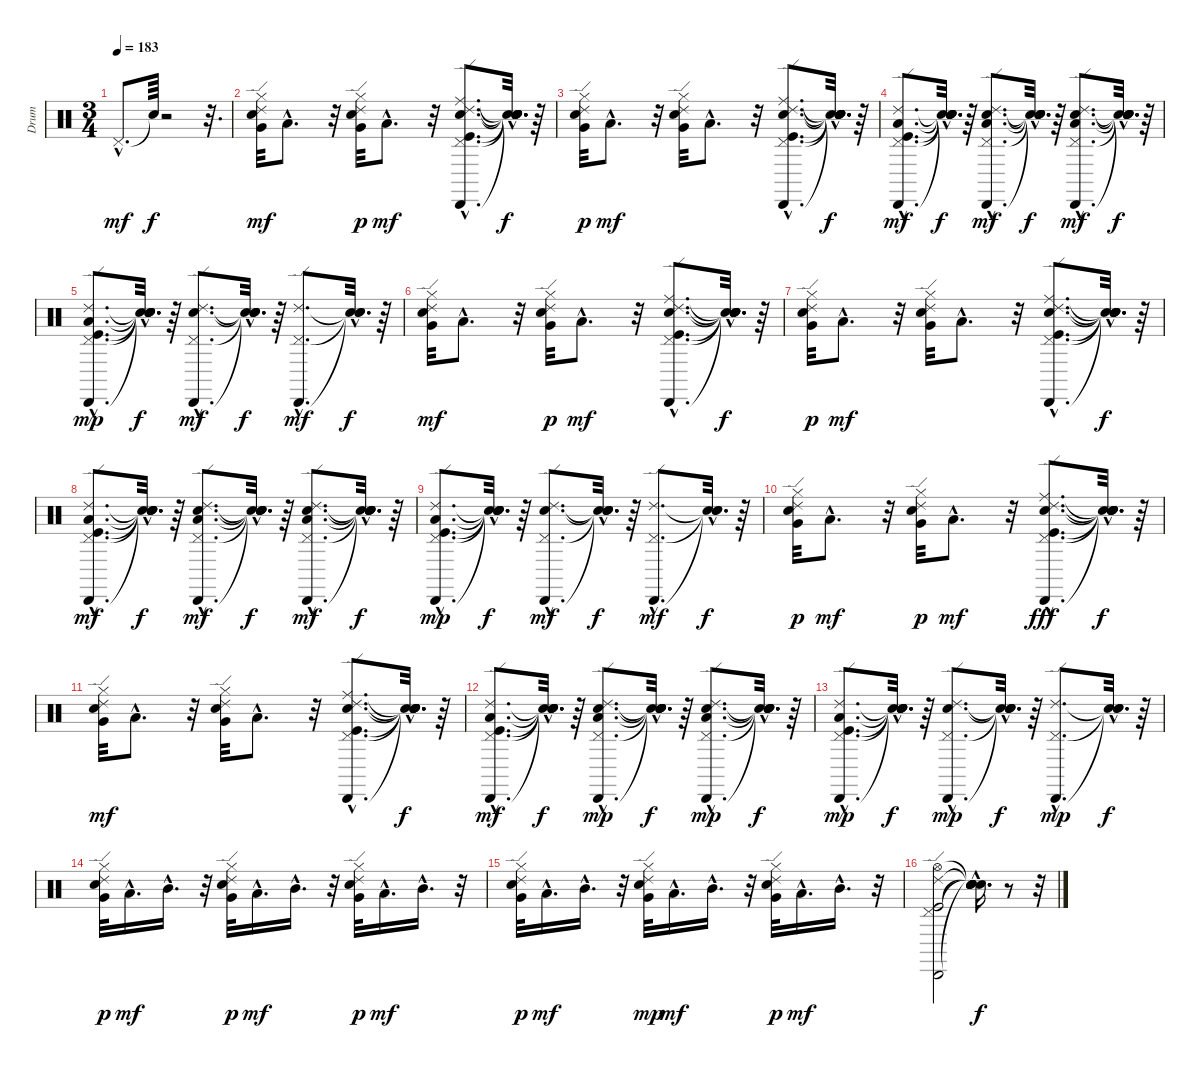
\track ("Drum" "Drum") {instrument percussion}
\staff {score}
\articulation defaults
\ts (3 4)
\tempo 183
\clef neutral
\ks c "Pedal Hi-Hat (hit)"{hac}.8{d dy mf} "Snare (hit)"{t}.64{dy f}
r.2 r.32{d} |
("Electric Snare (hit)" "Hi-Hat (closed)" "Very Low Tom (hit)" "Ride (edge) 2").32{dy mf} "Low Tom (hit)"{hac}.8{d} r.32 ("Electric Snare (hit)" "Very Low Tom (hit)" "Hi-Hat (closed)" "Ride (edge) 2").32{dy p} "Low Tom (hit)"{hac}.8{d dy mf} r.32 ("Electric Snare (hit)"{hac} "Cabasa (hit)"{hac} "Pedal Hi-Hat (hit)"{hac} "Kick (hit)"{hac} "Ride (edge) 2"{hac} "Ride (middle)"{hac}).8{d} ("Snare (hit)"{hac t} "Snare (hit)"{hac t} "Snare (hit)"{hac t} "Snare (hit)"{hac t} "Snare (hit)"{hac t} "Snare (hit)"{hac t}).32{d dy f} r.64 |
("Ride (edge) 2" "Very Low Tom (hit)" "Hi-Hat (closed)" "Electric Snare (hit)").32{dy p} "Low Tom (hit)"{hac}.8{d dy mf} r.32 ("Ride (edge) 2" "Hi-Hat (closed)" "Very Low Tom (hit)" "Electric Snare (hit)").32 "Low Tom (hit)"{hac}.8{d} r.32 ("Ride (middle)"{hac} "Ride (edge) 2"{hac} "Kick (hit)"{hac} "Pedal Hi-Hat (hit)"{hac} "Cabasa (hit)"{hac} "Electric Snare (hit)"{hac}).8{d} ("Snare (hit)"{hac t} "Snare (hit)"{hac t} "Snare (hit)"{hac t} "Snare (hit)"{hac t} "Snare (hit)"{hac t} "Snare (hit)"{hac t}).32{d dy f} r.64 |
("Ride (edge) 2"{hac} "Low Tom (hit)"{hac} "Kick (hit)"{hac} "Pedal Hi-Hat (hit)"{hac} "Cabasa (hit)"{hac}).8{d dy mf} ("Snare (hit)"{hac t} "Snare (hit)"{hac t} "Snare (hit)"{hac t} "Snare (hit)"{hac t} "Snare (hit)"{hac t}).32{d dy f} r.64 ("Ride (edge) 2"{hac} "Cabasa (hit)"{hac} "Pedal Hi-Hat (hit)"{hac} "Low Tom (hit)"{hac} "Electric Snare (hit)"{hac}).8{d dy mf} ("Snare (hit)"{hac t} "Snare (hit)"{hac t} "Snare (hit)"{hac t} "Snare (hit)"{hac t} "Snare (hit)"{hac t}).32{d dy f} r.64 ("Pedal Hi-Hat (hit)"{hac} "Ride (edge) 2"{hac} "Cabasa (hit)"{hac} "Electric Snare (hit)"{hac} "Low Tom (hit)"{hac}).8{d dy mf} ("Snare (hit)"{hac t} "Snare (hit)"{hac t} "Snare (hit)"{hac t} "Snare (hit)"{hac t} "Snare (hit)"{hac t}).32{d dy f} r.64 |
("Cabasa (hit)"{hac} "Low Tom (hit)"{hac} "Pedal Hi-Hat (hit)"{hac} "Kick (hit)"{hac} "Ride (edge) 2"{hac}).8{d dy mp} ("Snare (hit)"{hac t} "Snare (hit)"{hac t} "Snare (hit)"{hac t} "Snare (hit)"{hac t} "Snare (hit)"{hac t}).32{d dy f} r.64 ("Cabasa (hit)"{hac} "Ride (edge) 2"{hac} "Pedal Hi-Hat (hit)"{hac} "Electric Snare (hit)"{hac}).8{d dy mf} ("Snare (hit)"{hac t} "Snare (hit)"{hac t} "Snare (hit)"{hac t} "Snare (hit)"{hac t}).32{d dy f} r.64 ("Pedal Hi-Hat (hit)"{hac} "Ride (edge) 2"{hac} "Cabasa (hit)"{hac}).8{d dy mf} ("Snare (hit)"{hac t} "Snare (hit)"{hac t} "Snare (hit)"{hac t}).32{d dy f} r.64 |
("Electric Snare (hit)" "Hi-Hat (closed)" "Very Low Tom (hit)" "Ride (edge) 2").32{dy mf} "Low Tom (hit)"{hac}.8{d} r.32 ("Electric Snare (hit)" "Very Low Tom (hit)" "Hi-Hat (closed)" "Ride (edge) 2").32{dy p} "Low Tom (hit)"{hac}.8{d dy mf} r.32 ("Electric Snare (hit)"{hac} "Cabasa (hit)"{hac} "Pedal Hi-Hat (hit)"{hac} "Kick (hit)"{hac} "Ride (edge) 2"{hac} "Ride (middle)"{hac}).8{d} ("Snare (hit)"{hac t} "Snare (hit)"{hac t} "Snare (hit)"{hac t} "Snare (hit)"{hac t} "Snare (hit)"{hac t} "Snare (hit)"{hac t}).32{d dy f} r.64 |
("Ride (edge) 2" "Very Low Tom (hit)" "Hi-Hat (closed)" "Electric Snare (hit)").32{dy p} "Low Tom (hit)"{hac}.8{d dy mf} r.32 ("Ride (edge) 2" "Hi-Hat (closed)" "Very Low Tom (hit)" "Electric Snare (hit)").32 "Low Tom (hit)"{hac}.8{d} r.32 ("Ride (middle)"{hac} "Ride (edge) 2"{hac} "Kick (hit)"{hac} "Pedal Hi-Hat (hit)"{hac} "Cabasa (hit)"{hac} "Electric Snare (hit)"{hac}).8{d} ("Snare (hit)"{hac t} "Snare (hit)"{hac t} "Snare (hit)"{hac t} "Snare (hit)"{hac t} "Snare (hit)"{hac t} "Snare (hit)"{hac t}).32{d dy f} r.64 |
("Ride (edge) 2"{hac} "Low Tom (hit)"{hac} "Kick (hit)"{hac} "Pedal Hi-Hat (hit)"{hac} "Cabasa (hit)"{hac}).8{d dy mf} ("Snare (hit)"{hac t} "Snare (hit)"{hac t} "Snare (hit)"{hac t} "Snare (hit)"{hac t} "Snare (hit)"{hac t}).32{d dy f} r.64 ("Ride (edge) 2"{hac} "Cabasa (hit)"{hac} "Pedal Hi-Hat (hit)"{hac} "Low Tom (hit)"{hac} "Electric Snare (hit)"{hac}).8{d dy mf} ("Snare (hit)"{hac t} "Snare (hit)"{hac t} "Snare (hit)"{hac t} "Snare (hit)"{hac t} "Snare (hit)"{hac t}).32{d dy f} r.64 ("Pedal Hi-Hat (hit)"{hac} "Ride (edge) 2"{hac} "Cabasa (hit)"{hac} "Electric Snare (hit)"{hac} "Low Tom (hit)"{hac}).8{d dy mf} ("Snare (hit)"{hac t} "Snare (hit)"{hac t} "Snare (hit)"{hac t} "Snare (hit)"{hac t} "Snare (hit)"{hac t}).32{d dy f} r.64 |
("Cabasa (hit)"{hac} "Low Tom (hit)"{hac} "Pedal Hi-Hat (hit)"{hac} "Kick (hit)"{hac} "Ride (edge) 2"{hac}).8{d dy mp} ("Snare (hit)"{hac t} "Snare (hit)"{hac t} "Snare (hit)"{hac t} "Snare (hit)"{hac t} "Snare (hit)"{hac t}).32{d dy f} r.64 ("Cabasa (hit)"{hac} "Ride (edge) 2"{hac} "Pedal Hi-Hat (hit)"{hac} "Electric Snare (hit)"{hac}).8{d dy mf} ("Snare (hit)"{hac t} "Snare (hit)"{hac t} "Snare (hit)"{hac t} "Snare (hit)"{hac t}).32{d dy f} r.64 ("Pedal Hi-Hat (hit)"{hac} "Ride (edge) 2"{hac} "Cabasa (hit)"{hac}).8{d dy mf} ("Snare (hit)"{hac t} "Snare (hit)"{hac t} "Snare (hit)"{hac t}).32{d dy f} r.64 |
("Ride (edge) 2" "Very Low Tom (hit)" "Hi-Hat (closed)" "Electric Snare (hit)").32{dy p} "Low Tom (hit)"{hac}.8{d dy mf} r.32 ("Very Low Tom (hit)" "Electric Snare (hit)" "Hi-Hat (closed)" "Ride (edge) 2").32{dy p} "Low Tom (hit)"{hac}.8{d dy mf} r.32 ("Cabasa (hit)"{hac} "Electric Snare (hit)"{hac} "Pedal Hi-Hat (hit)"{hac} "Ride (middle)"{hac} "Kick (hit)"{hac} "Ride (edge) 2"{hac}).8{d dy fff} ("Snare (hit)"{hac t} "Snare (hit)"{hac t} "Snare (hit)"{hac t} "Snare (hit)"{hac t} "Snare (hit)"{hac t} "Snare (hit)"{hac t}).32{d dy f} r.64 |
("Electric Snare (hit)" "Hi-Hat (closed)" "Very Low Tom (hit)" "Ride (edge) 2").32{dy mf} "Low Tom (hit)"{hac}.8{d} r.32 ("Electric Snare (hit)" "Ride (edge) 2" "Hi-Hat (closed)" "Very Low Tom (hit)").32 "Low Tom (hit)"{hac}.8{d} r.32 ("Electric Snare (hit)"{hac} "Cabasa (hit)"{hac} "Ride (edge) 2"{hac} "Kick (hit)"{hac} "Pedal Hi-Hat (hit)"{hac} "Ride (middle)"{hac}).8{d} ("Snare (hit)"{hac t} "Snare (hit)"{hac t} "Snare (hit)"{hac t} "Snare (hit)"{hac t} "Snare (hit)"{hac t} "Snare (hit)"{hac t}).32{d dy f} r.64 |
("Pedal Hi-Hat (hit)"{hac} "Cabasa (hit)"{hac} "Low Tom (hit)"{hac} "Ride (edge) 2"{hac} "Kick (hit)"{hac}).8{d dy mf} ("Snare (hit)"{hac t} "Snare (hit)"{hac t} "Snare (hit)"{hac t} "Snare (hit)"{hac t} "Snare (hit)"{hac t}).32{d dy f} r.64 ("Low Tom (hit)"{hac} "Pedal Hi-Hat (hit)"{hac} "Electric Snare (hit)"{hac} "Cabasa (hit)"{hac} "Ride (edge) 2"{hac}).8{d dy mp} ("Snare (hit)"{hac t} "Snare (hit)"{hac t} "Snare (hit)"{hac t} "Snare (hit)"{hac t} "Snare (hit)"{hac t}).32{d dy f} r.64 ("Low Tom (hit)"{hac} "Pedal Hi-Hat (hit)"{hac} "Electric Snare (hit)"{hac} "Cabasa (hit)"{hac} "Ride (edge) 2"{hac}).8{d dy mp} ("Snare (hit)"{hac t} "Snare (hit)"{hac t} "Snare (hit)"{hac t} "Snare (hit)"{hac t} "Snare (hit)"{hac t}).32{d dy f} r.64 |
("Pedal Hi-Hat (hit)"{hac} "Kick (hit)"{hac} "Low Tom (hit)"{hac} "Cabasa (hit)"{hac} "Ride (edge) 2"{hac}).8{d dy mp} ("Snare (hit)"{hac t} "Snare (hit)"{hac t} "Snare (hit)"{hac t} "Snare (hit)"{hac t} "Snare (hit)"{hac t}).32{d dy f} r.64 ("Cabasa (hit)"{hac} "Electric Snare (hit)"{hac} "Pedal Hi-Hat (hit)"{hac} "Ride (edge) 2"{hac}).8{d dy mp} ("Snare (hit)"{hac t} "Snare (hit)"{hac t} "Snare (hit)"{hac t} "Snare (hit)"{hac t}).32{d dy f} r.64 ("Cabasa (hit)"{hac} "Pedal Hi-Hat (hit)"{hac} "Ride (edge) 2"{hac}).8{d dy mp} ("Snare (hit)"{hac t} "Snare (hit)"{hac t} "Snare (hit)"{hac t}).32{d dy f} r.64 |
("Very Low Tom (hit)" "Ride (edge) 2" "Electric Snare (hit)" "Hi-Hat (closed)").32{dy p} "Low Tom (hit)"{hac}.16{d dy mf} "Mid Tom (hit)"{hac}.16{d} r.32 ("Very Low Tom (hit)" "Ride (edge) 2" "Hi-Hat (closed)" "Electric Snare (hit)").32{dy p} "Low Tom (hit)"{hac}.16{d dy mf} "Mid Tom (hit)"{hac}.16{d} r.32 ("Ride (edge) 2" "Electric Snare (hit)" "Very Low Tom (hit)" "Hi-Hat (closed)").32{dy p} "Low Tom (hit)"{hac}.16{d dy mf} "Mid Tom (hit)"{hac}.16{d} r.32 |
("Very Low Tom (hit)" "Electric Snare (hit)" "Ride (edge) 2" "Hi-Hat (closed)").32{dy p} "Low Tom (hit)"{hac}.16{d dy mf} "Mid Tom (hit)"{hac}.16{d} r.32 ("Very Low Tom (hit)" "Electric Snare (hit)" "Hi-Hat (closed)" "Ride (edge) 2").32{dy mp} "Low Tom (hit)"{hac}.16{d dy mf} "Mid Tom (hit)"{hac}.16{d} r.32 ("Hi-Hat (closed)" "Very Low Tom (hit)" "Ride (edge) 2" "Electric Snare (hit)").32{dy p} "Low Tom (hit)"{hac}.16{d dy mf} "Mid Tom (hit)"{hac}.16{d} r.32 |
("Ride (edge) 2" "Pedal Hi-Hat (hit)" "Hi-Hat (open)" "Kick (hit)" "Cabasa (hit)").2 ("Snare (hit)"{hac t} "Snare (hit)"{hac t} "Snare (hit)"{hac t} "Snare (hit)"{hac t} "Snare (hit)"{hac t}).16{d dy f} r.8 r.32
